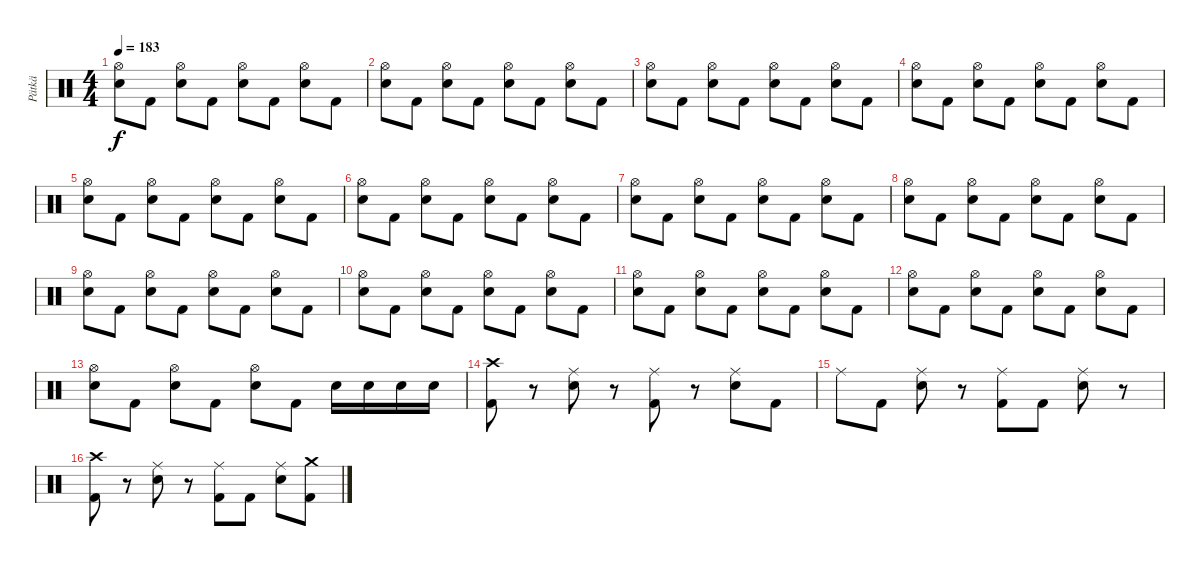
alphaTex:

\track ("Pätkä" "Pätkä") {instrument percussion}
\staff {score}
\articulation defaults
\ts (4 4)
\tempo 183
\clef neutral
\ks c
("Hi-Hat (open)" "Electric Snare (hit)").8{dy f} "Kick (hit) 2".8 ("Hi-Hat (open)" "Electric Snare (hit)").8 "Kick (hit) 2".8 ("Hi-Hat (open)" "Electric Snare (hit)").8 "Kick (hit) 2".8 ("Hi-Hat (open)" "Electric Snare (hit)").8 "Kick (hit) 2".8 |
("Hi-Hat (open)" "Electric Snare (hit)").8 "Kick (hit) 2".8 ("Hi-Hat (open)" "Electric Snare (hit)").8 "Kick (hit) 2".8 ("Hi-Hat (open)" "Electric Snare (hit)").8 "Kick (hit) 2".8 ("Hi-Hat (open)" "Electric Snare (hit)").8 "Kick (hit) 2".8 |
("Hi-Hat (open)" "Electric Snare (hit)").8 "Kick (hit) 2".8 ("Hi-Hat (open)" "Electric Snare (hit)").8 "Kick (hit) 2".8 ("Hi-Hat (open)" "Electric Snare (hit)").8 "Kick (hit) 2".8 ("Hi-Hat (open)" "Electric Snare (hit)").8 "Kick (hit) 2".8 |
("Hi-Hat (open)" "Electric Snare (hit)").8 "Kick (hit) 2".8 ("Hi-Hat (open)" "Electric Snare (hit)").8 "Kick (hit) 2".8 ("Hi-Hat (open)" "Electric Snare (hit)").8 "Kick (hit) 2".8 ("Hi-Hat (open)" "Electric Snare (hit)").8 "Kick (hit) 2".8 |
("Hi-Hat (open)" "Electric Snare (hit)").8 "Kick (hit) 2".8 ("Hi-Hat (open)" "Electric Snare (hit)").8 "Kick (hit) 2".8 ("Hi-Hat (open)" "Electric Snare (hit)").8 "Kick (hit) 2".8 ("Hi-Hat (open)" "Electric Snare (hit)").8 "Kick (hit) 2".8 |
("Hi-Hat (open)" "Electric Snare (hit)").8 "Kick (hit) 2".8 ("Hi-Hat (open)" "Electric Snare (hit)").8 "Kick (hit) 2".8 ("Hi-Hat (open)" "Electric Snare (hit)").8 "Kick (hit) 2".8 ("Hi-Hat (open)" "Electric Snare (hit)").8 "Kick (hit) 2".8 |
("Hi-Hat (open)" "Electric Snare (hit)").8 "Kick (hit) 2".8 ("Hi-Hat (open)" "Electric Snare (hit)").8 "Kick (hit) 2".8 ("Hi-Hat (open)" "Electric Snare (hit)").8 "Kick (hit) 2".8 ("Hi-Hat (open)" "Electric Snare (hit)").8 "Kick (hit) 2".8 |
("Hi-Hat (open)" "Electric Snare (hit)").8 "Kick (hit) 2".8 ("Hi-Hat (open)" "Electric Snare (hit)").8 "Kick (hit) 2".8 ("Hi-Hat (open)" "Electric Snare (hit)").8 "Kick (hit) 2".8 ("Hi-Hat (open)" "Electric Snare (hit)").8 "Kick (hit) 2".8 |
("Hi-Hat (open)" "Electric Snare (hit)").8 "Kick (hit) 2".8 ("Hi-Hat (open)" "Electric Snare (hit)").8 "Kick (hit) 2".8 ("Hi-Hat (open)" "Electric Snare (hit)").8 "Kick (hit) 2".8 ("Hi-Hat (open)" "Electric Snare (hit)").8 "Kick (hit) 2".8 |
("Hi-Hat (open)" "Electric Snare (hit)").8 "Kick (hit) 2".8 ("Hi-Hat (open)" "Electric Snare (hit)").8 "Kick (hit) 2".8 ("Hi-Hat (open)" "Electric Snare (hit)").8 "Kick (hit) 2".8 ("Hi-Hat (open)" "Electric Snare (hit)").8 "Kick (hit) 2".8 |
("Hi-Hat (open)" "Electric Snare (hit)").8 "Kick (hit) 2".8 ("Hi-Hat (open)" "Electric Snare (hit)").8 "Kick (hit) 2".8 ("Hi-Hat (open)" "Electric Snare (hit)").8 "Kick (hit) 2".8 ("Hi-Hat (open)" "Electric Snare (hit)").8 "Kick (hit) 2".8 |
("Hi-Hat (open)" "Electric Snare (hit)").8 "Kick (hit) 2".8 ("Hi-Hat (open)" "Electric Snare (hit)").8 "Kick (hit) 2".8 ("Hi-Hat (open)" "Electric Snare (hit)").8 "Kick (hit) 2".8 ("Hi-Hat (open)" "Electric Snare (hit)").8 "Kick (hit) 2".8 |
("Hi-Hat (open)" "Electric Snare (hit)").8 "Kick (hit) 2".8 ("Hi-Hat (open)" "Electric Snare (hit)").8 "Kick (hit) 2".8 ("Hi-Hat (open)" "Electric Snare (hit)").8 "Kick (hit) 2".8 "Electric Snare (hit)".16 "Electric Snare (hit)".16 "Electric Snare (hit)".16 "Electric Snare (hit)".16 |
("Crash high (hit)" "Kick (hit) 2").8 r.8 ("Ride (middle)" "Electric Snare (hit)").8 r.8 ("Ride (middle)" "Kick (hit) 2").8 r.8 ("Ride (middle)" "Electric Snare (hit)").8 "Kick (hit) 2".8 |
"Ride (middle)".8 "Kick (hit) 2".8 ("Ride (middle)" "Electric Snare (hit)").8 r.8 ("Ride (middle)" "Kick (hit) 2").8 "Kick (hit) 2".8 ("Ride (middle)" "Electric Snare (hit)").8 r.8 |
("Crash high (hit)" "Kick (hit) 2").8 r.8 ("Ride (middle)" "Electric Snare (hit)").8 r.8 ("Ride (middle)" "Kick (hit) 2").8 "Kick (hit) 2".8 ("Ride (middle)" "Electric Snare (hit)").8 ("Crash medium (hit)" "Kick (hit) 2").8
